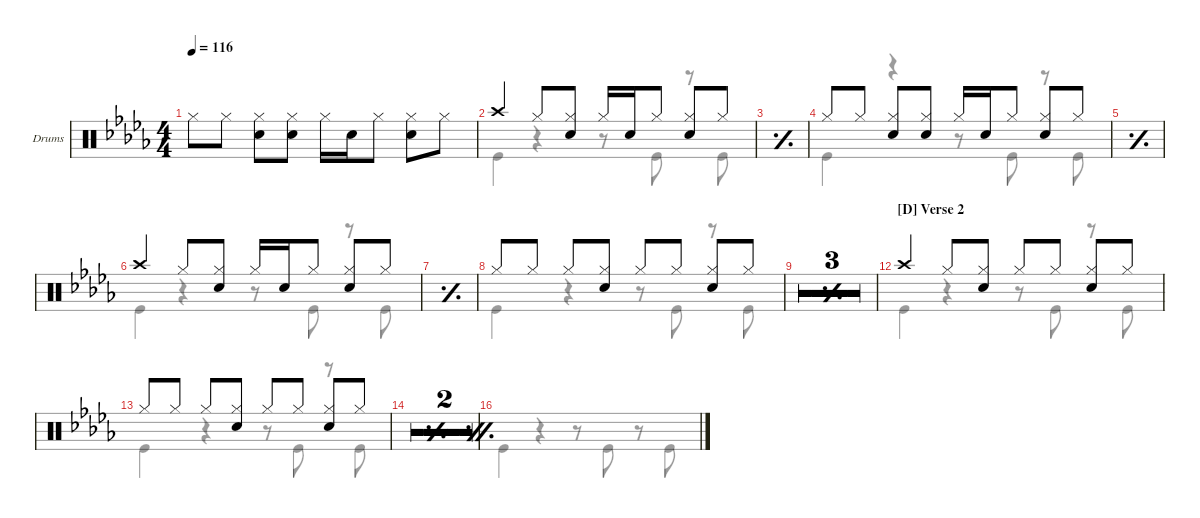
\hideDynamics
\bracketExtendMode nobrackets
\firstSystemTrackNameOrientation horizontal
\otherSystemsTrackNameOrientation horizontal
\track ("Drums" "Drums") {multiBarRest instrument percussion}
\staff {score}
\articulation defaults
\voice
\ts (4 4)
\tempo 116
\clef neutral
\ks db "Hi-Hat (closed)".8{dy mf} "Hi-Hat (closed)".8
("Hi-Hat (closed)" "Snare (hit) 2").8 ("Hi-Hat (closed)" "Snare (hit) 2").8 "Hi-Hat (closed)".16 "Snare (hit) 2".16 "Hi-Hat (closed)".8 ("Hi-Hat (closed)" "Snare (hit) 2").8 "Hi-Hat (closed)".8 |
"Crash high (hit)".4 "Hi-Hat (closed)".8 ("Hi-Hat (closed)" "Snare (hit) 2").8 "Hi-Hat (closed)".16 "Snare (hit) 2".16 "Hi-Hat (closed)".8 ("Hi-Hat (closed)" "Snare (hit) 2").8 "Hi-Hat (closed)".8 |
\simile simple
|
\simile none "Hi-Hat (closed)".8 "Hi-Hat (closed)".8
("Hi-Hat (closed)" "Snare (hit) 2").8 ("Hi-Hat (closed)" "Snare (hit) 2").8 "Hi-Hat (closed)".16 "Snare (hit) 2".16 "Hi-Hat (closed)".8 ("Hi-Hat (closed)" "Snare (hit) 2").8 "Hi-Hat (closed)".8 |
\simile simple
|
\simile none "Crash high (hit)".4 "Hi-Hat (closed)".8
("Hi-Hat (closed)" "Snare (hit) 2").8 "Hi-Hat (closed)".16 "Snare (hit) 2".16 "Hi-Hat (closed)".8 ("Hi-Hat (closed)" "Snare (hit) 2").8 "Hi-Hat (closed)".8 |
\simile simple
|
\simile none "Hi-Hat (closed)".8 "Hi-Hat (closed)".8 "Hi-Hat (closed)".8
("Hi-Hat (closed)" "Snare (hit) 2").8 "Hi-Hat (closed)".8 "Hi-Hat (closed)".8 ("Hi-Hat (closed)" "Snare (hit) 2").8 "Hi-Hat (closed)".8 |
\simile simple
|
\simile firstofdouble
|
\simile secondofdouble
|
\section ("D" "Verse 2")
\simile none "Crash high (hit)".4 "Hi-Hat (closed)".8
("Hi-Hat (closed)" "Snare (hit) 2").8 "Hi-Hat (closed)".8 "Hi-Hat (closed)".8 ("Hi-Hat (closed)" "Snare (hit) 2").8 "Hi-Hat (closed)".8 |
"Hi-Hat (closed)".8 "Hi-Hat (closed)".8 "Hi-Hat (closed)".8 ("Hi-Hat (closed)" "Snare (hit) 2").8 "Hi-Hat (closed)".8 "Hi-Hat (closed)".8 ("Hi-Hat (closed)" "Snare (hit) 2").8 "Hi-Hat (closed)".8 |
\simile simple
|
\simile firstofdouble
|
\simile secondofdouble
\voice
\clef neutral
\ottava regular
\simile none
\ks db "Kick (hit)".4{dy mf}
r.4 r.8 "Kick (hit)".8 r.8 "Kick (hit)".8 |
"Kick (hit)".4 r.4 r.8 "Kick (hit)".8 r.8 "Kick (hit)".8 |
\simile simple
|
\simile none "Kick (hit)".4
r.4 r.8 "Kick (hit)".8 r.8 "Kick (hit)".8 |
\simile simple
|
\simile none "Kick (hit)".4
r.4 r.8 "Kick (hit)".8 r.8 "Kick (hit)".8 |
\simile simple
|
\simile none "Kick (hit)".4
r.4 r.8 "Kick (hit)".8 r.8 "Kick (hit)".8 |
\simile simple
|
\simile firstofdouble
|
\simile secondofdouble
|
\simile none "Kick (hit)".4
r.4 r.8 "Kick (hit)".8 r.8 "Kick (hit)".8 |
"Kick (hit)".4 r.4 r.8 "Kick (hit)".8 r.8 "Kick (hit)".8 |
\simile simple
|
\simile firstofdouble
|
\simile secondofdouble
